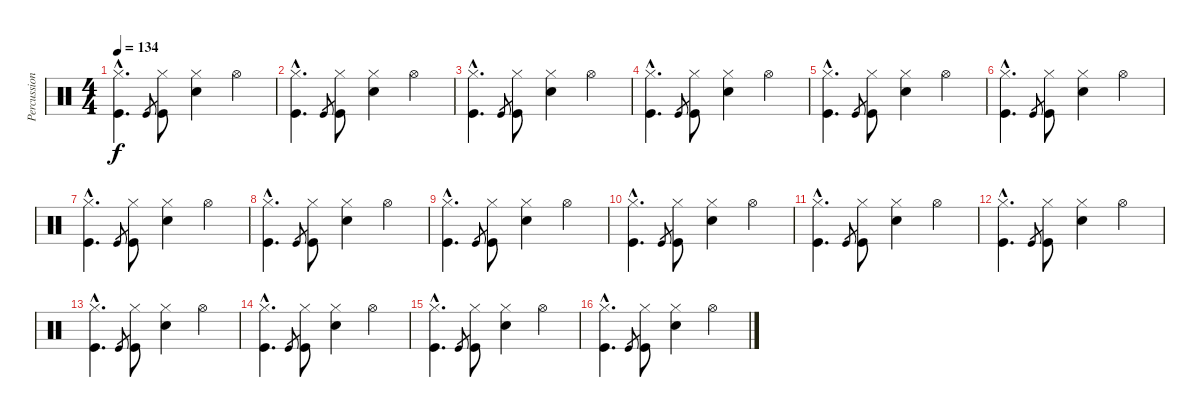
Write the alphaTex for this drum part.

\track ("Percussions" "Percussion") {instrument percussion}
\staff {score}
\articulation defaults
\ts (4 4)
\tempo 134
\clef neutral
\ks c
("Hi-Hat (closed)"{hac} "Kick (hit)"{hac}).4{d dy f} "Kick (hit)".8{gr} ("Hi-Hat (closed)" "Kick (hit)").8 ("Hi-Hat (closed)" "Electric Snare (hit)").4 "Hi-Hat (open)".4 |
("Hi-Hat (closed)"{hac} "Kick (hit)"{hac}).4{d} "Kick (hit)".8{gr} ("Hi-Hat (closed)" "Kick (hit)").8 ("Hi-Hat (closed)" "Electric Snare (hit)").4 "Hi-Hat (open)".4 |
("Hi-Hat (closed)"{hac} "Kick (hit)"{hac}).4{d} "Kick (hit)".8{gr} ("Hi-Hat (closed)" "Kick (hit)").8 ("Hi-Hat (closed)" "Electric Snare (hit)").4 "Hi-Hat (open)".4 |
("Hi-Hat (closed)"{hac} "Kick (hit)"{hac}).4{d} "Kick (hit)".8{gr} ("Hi-Hat (closed)" "Kick (hit)").8 ("Hi-Hat (closed)" "Electric Snare (hit)").4 "Hi-Hat (open)".4 |
("Hi-Hat (closed)"{hac} "Kick (hit)"{hac}).4{d} "Kick (hit)".8{gr} ("Hi-Hat (closed)" "Kick (hit)").8 ("Hi-Hat (closed)" "Electric Snare (hit)").4 "Hi-Hat (open)".4 |
("Hi-Hat (closed)"{hac} "Kick (hit)"{hac}).4{d} "Kick (hit)".8{gr} ("Hi-Hat (closed)" "Kick (hit)").8 ("Hi-Hat (closed)" "Electric Snare (hit)").4 "Hi-Hat (open)".4 |
("Hi-Hat (closed)"{hac} "Kick (hit)"{hac}).4{d} "Kick (hit)".8{gr} ("Hi-Hat (closed)" "Kick (hit)").8 ("Hi-Hat (closed)" "Electric Snare (hit)").4 "Hi-Hat (open)".4 |
("Hi-Hat (closed)"{hac} "Kick (hit)"{hac}).4{d} "Kick (hit)".8{gr} ("Hi-Hat (closed)" "Kick (hit)").8 ("Hi-Hat (closed)" "Electric Snare (hit)").4 "Hi-Hat (open)".4 |
("Hi-Hat (closed)"{hac} "Kick (hit)"{hac}).4{d} "Kick (hit)".8{gr} ("Hi-Hat (closed)" "Kick (hit)").8 ("Hi-Hat (closed)" "Electric Snare (hit)").4 "Hi-Hat (open)".4 |
("Hi-Hat (closed)"{hac} "Kick (hit)"{hac}).4{d} "Kick (hit)".8{gr} ("Hi-Hat (closed)" "Kick (hit)").8 ("Hi-Hat (closed)" "Electric Snare (hit)").4 "Hi-Hat (open)".4 |
("Hi-Hat (closed)"{hac} "Kick (hit)"{hac}).4{d} "Kick (hit)".8{gr} ("Hi-Hat (closed)" "Kick (hit)").8 ("Hi-Hat (closed)" "Electric Snare (hit)").4 "Hi-Hat (open)".4 |
("Hi-Hat (closed)"{hac} "Kick (hit)"{hac}).4{d} "Kick (hit)".8{gr} ("Hi-Hat (closed)" "Kick (hit)").8 ("Hi-Hat (closed)" "Electric Snare (hit)").4 "Hi-Hat (open)".4 |
("Hi-Hat (closed)"{hac} "Kick (hit)"{hac}).4{d} "Kick (hit)".8{gr} ("Hi-Hat (closed)" "Kick (hit)").8 ("Hi-Hat (closed)" "Electric Snare (hit)").4 "Hi-Hat (open)".4 |
("Hi-Hat (closed)"{hac} "Kick (hit)"{hac}).4{d} "Kick (hit)".8{gr} ("Hi-Hat (closed)" "Kick (hit)").8 ("Hi-Hat (closed)" "Electric Snare (hit)").4 "Hi-Hat (open)".4 |
("Hi-Hat (closed)"{hac} "Kick (hit)"{hac}).4{d} "Kick (hit)".8{gr} ("Hi-Hat (closed)" "Kick (hit)").8 ("Hi-Hat (closed)" "Electric Snare (hit)").4 "Hi-Hat (open)".4 |
("Hi-Hat (closed)"{hac} "Kick (hit)"{hac}).4{d} "Kick (hit)".8{gr} ("Hi-Hat (closed)" "Kick (hit)").8 ("Hi-Hat (closed)" "Electric Snare (hit)").4 "Hi-Hat (open)".4
